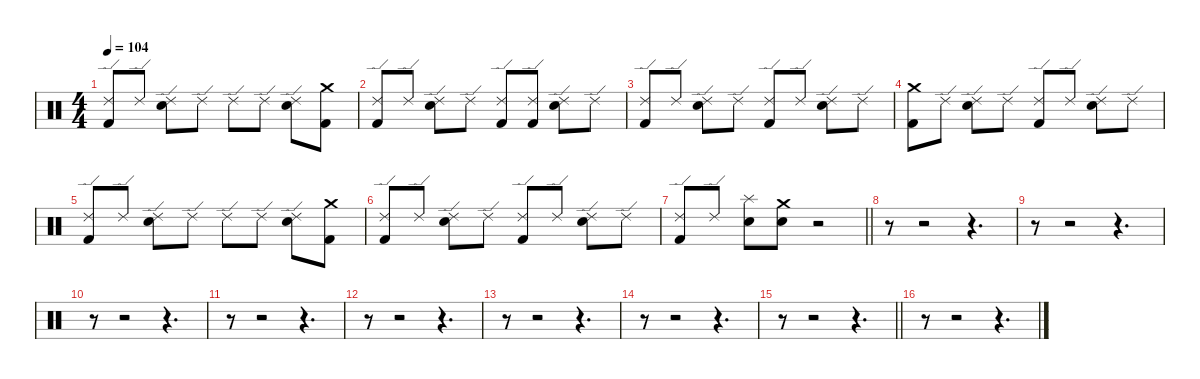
\defaultSystemsLayout 4
\hideDynamics
\bracketExtendMode nobrackets
\singleTrackTrackNamePolicy hidden
\multiTrackTrackNamePolicy hidden
\firstSystemTrackNameMode fullname
\firstSystemTrackNameOrientation horizontal
\otherSystemsTrackNameOrientation horizontal
\track ("Drums" "drm.") {instrument percussion}
\staff {score}
\articulation defaults
\ts (4 4)
\tempo 104
\clef neutral
\ks c
("Ride (edge) 2" "Kick (hit) 2").8{dy f beam Up} "Ride (edge) 2".8{beam Up} ("Ride (edge) 2" "Snare (hit) 2").8{beam Down} "Ride (edge) 2".8{beam Down} "Ride (edge) 2".8{beam Down} "Ride (edge) 2".8{beam Down} ("Ride (edge) 2" "Snare (hit) 2").8{beam Down} ("Crash medium (hit)" "Kick (hit) 2").8{beam Down} |
("Ride (edge) 2" "Kick (hit) 2").8{beam Up} "Ride (edge) 2".8{beam Up} ("Ride (edge) 2" "Snare (hit) 2").8{beam Down} "Ride (edge) 2".8{beam Down} ("Ride (edge) 2" "Kick (hit) 2").8{beam Up} ("Ride (edge) 2" "Kick (hit) 2").8{beam Up} ("Ride (edge) 2" "Snare (hit) 2").8{beam Down} "Ride (edge) 2".8{beam Down} |
("Ride (edge) 2" "Kick (hit) 2").8{beam Up} "Ride (edge) 2".8{beam Up} ("Ride (edge) 2" "Snare (hit) 2").8{beam Down} "Ride (edge) 2".8{beam Down} ("Ride (edge) 2" "Kick (hit) 2").8{beam Up} "Ride (edge) 2".8{beam Up} ("Ride (edge) 2" "Snare (hit) 2").8{beam Down} "Ride (edge) 2".8{beam Down} |
("Crash medium (hit)" "Kick (hit) 2").8{beam Down} "Ride (edge) 2".8{beam Down} ("Ride (edge) 2" "Snare (hit) 2").8{beam Down} "Ride (edge) 2".8{beam Down} ("Ride (edge) 2" "Kick (hit) 2").8{beam Up} "Ride (edge) 2".8{beam Up} ("Ride (edge) 2" "Snare (hit) 2").8{beam Down} "Ride (edge) 2".8{beam Down} |
("Ride (edge) 2" "Kick (hit) 2").8{beam Up} "Ride (edge) 2".8{beam Up} ("Ride (edge) 2" "Snare (hit) 2").8{beam Down} "Ride (edge) 2".8{beam Down} "Ride (edge) 2".8{beam Down} "Ride (edge) 2".8{beam Down} ("Ride (edge) 2" "Snare (hit) 2").8{beam Down} ("Crash medium (hit)" "Kick (hit) 2").8{beam Down} |
("Ride (edge) 2" "Kick (hit) 2").8{beam Up} "Ride (edge) 2".8{beam Up} ("Ride (edge) 2" "Snare (hit) 2").8{beam Down} "Ride (edge) 2".8{beam Down} ("Ride (edge) 2" "Kick (hit) 2").8{beam Up} "Ride (edge) 2".8{beam Up} ("Ride (edge) 2" "Snare (hit) 2").8{beam Down} "Ride (edge) 2".8{beam Down} |
\barLineRight lightlight
("Ride (edge) 2" "Kick (hit) 2").8{beam Up} "Ride (edge) 2".8{beam Up} ("Splash (hit)" "Snare (hit) 2").8{beam Down} ("Crash medium (hit)" "Snare (hit) 2").8{beam Down} r.2{beam Down} |
\section ("" "")
r.8{beam Down} r.2{beam Down} r.4{d beam Down} |
r.8{beam Down} r.2{beam Down} r.4{d beam Down} |
r.8{beam Down} r.2{beam Down} r.4{d beam Down} |
r.8{beam Down} r.2{beam Down} r.4{d beam Down} |
r.8{beam Down} r.2{beam Down} r.4{d beam Down} |
r.8{beam Down} r.2{beam Down} r.4{d beam Down} |
r.8{beam Down} r.2{beam Down} r.4{d beam Down} |
\barLineRight lightlight
r.8{beam Down} r.2{beam Down} r.4{d beam Down} |
\section ("" "")
r.8{beam Down} r.2{beam Down} r.4{d beam Down}
